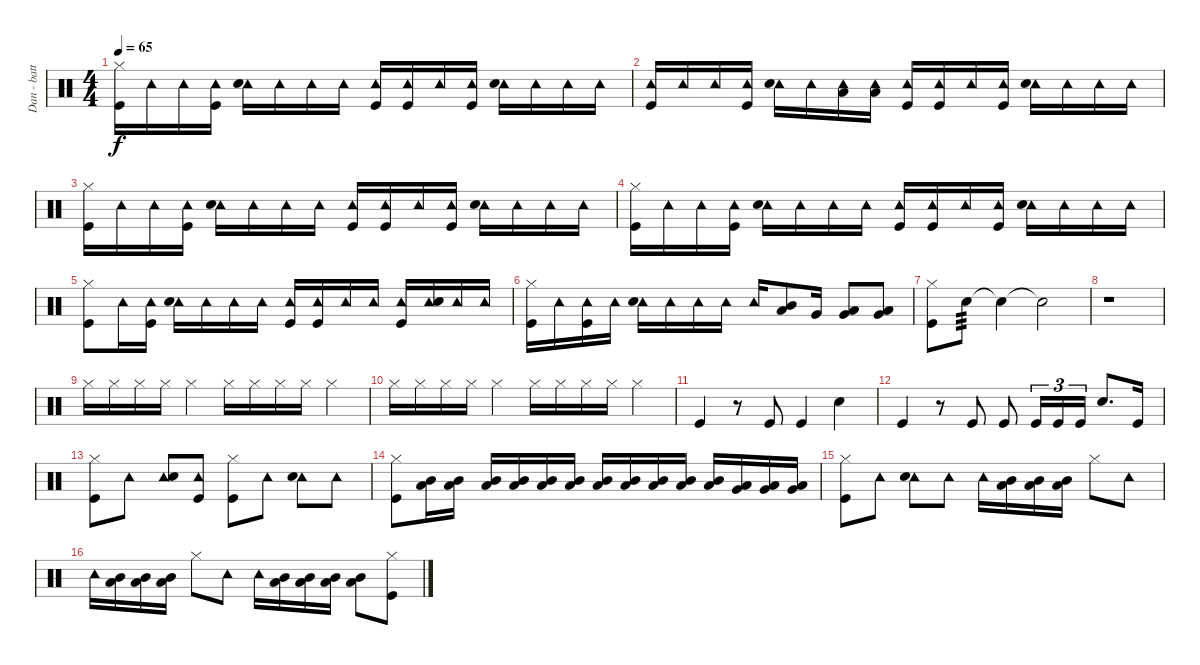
\track ("Dan - batterie" "Dan - batt") {instrument percussion}
\staff {score}
\articulation defaults
\ts (4 4)
\tempo 65
\clef neutral
\ks c
("Hi-Hat (closed)" "Kick (hit)").16{dy f} "Tambourine (hit)".16 "Tambourine (hit)".16 ("Tambourine (hit)" "Kick (hit)").16 ("Tambourine (hit)" "Snare (hit) 2").16 "Tambourine (hit)".16 "Tambourine (hit)".16 "Tambourine (hit)".16 ("Tambourine (hit)" "Kick (hit)").16 ("Tambourine (hit)" "Kick (hit)").16 "Tambourine (hit)".16 ("Tambourine (hit)" "Kick (hit)").16 ("Tambourine (hit)" "Snare (hit) 2").16 "Tambourine (hit)".16 "Tambourine (hit)".16 "Tambourine (hit)".16 |
("Tambourine (hit)" "Kick (hit)").16 "Tambourine (hit)".16 "Tambourine (hit)".16 ("Tambourine (hit)" "Kick (hit)").16 ("Tambourine (hit)" "Snare (hit) 2").16 "Tambourine (hit)".16 ("Tambourine (hit)" "Low Tom (hit)").16 ("Tambourine (hit)" "Low Tom (hit)").16 ("Tambourine (hit)" "Kick (hit)").16 ("Tambourine (hit)" "Kick (hit)").16 "Tambourine (hit)".16 ("Tambourine (hit)" "Kick (hit)").16 ("Tambourine (hit)" "Snare (hit) 2").16 "Tambourine (hit)".16 "Tambourine (hit)".16 "Tambourine (hit)".16 |
("Hi-Hat (closed)" "Kick (hit)").16 "Tambourine (hit)".16 "Tambourine (hit)".16 ("Tambourine (hit)" "Kick (hit)").16 ("Tambourine (hit)" "Snare (hit) 2").16 "Tambourine (hit)".16 "Tambourine (hit)".16 "Tambourine (hit)".16 ("Tambourine (hit)" "Kick (hit)").16 ("Tambourine (hit)" "Kick (hit)").16 "Tambourine (hit)".16 ("Tambourine (hit)" "Kick (hit)").16 ("Tambourine (hit)" "Snare (hit) 2").16 "Tambourine (hit)".16 "Tambourine (hit)".16 "Tambourine (hit)".16 |
("Hi-Hat (closed)" "Kick (hit)").16 "Tambourine (hit)".16 "Tambourine (hit)".16 ("Tambourine (hit)" "Kick (hit)").16 ("Tambourine (hit)" "Snare (hit) 2").16 "Tambourine (hit)".16 "Tambourine (hit)".16 "Tambourine (hit)".16 ("Tambourine (hit)" "Kick (hit)").16 ("Tambourine (hit)" "Kick (hit)").16 "Tambourine (hit)".16 ("Tambourine (hit)" "Kick (hit)").16 ("Tambourine (hit)" "Snare (hit) 2").16 "Tambourine (hit)".16 "Tambourine (hit)".16 "Tambourine (hit)".16 |
("Hi-Hat (closed)" "Kick (hit)").8 "Tambourine (hit)".16 ("Tambourine (hit)" "Kick (hit)").16 ("Tambourine (hit)" "Snare (hit) 2").16 "Tambourine (hit)".16 "Tambourine (hit)".16 "Tambourine (hit)".16 ("Tambourine (hit)" "Kick (hit)").16 ("Tambourine (hit)" "Kick (hit)").16 "Tambourine (hit)".16 "Tambourine (hit)".16 ("Tambourine (hit)" "Kick (hit)").16 ("Tambourine (hit)" "Snare (hit) 2").16 "Tambourine (hit)".16 "Tambourine (hit)".16 |
("Hi-Hat (closed)" "Kick (hit)").16 "Tambourine (hit)".16 ("Tambourine (hit)" "Kick (hit)").16 "Tambourine (hit)".16 ("Tambourine (hit)" "Snare (hit) 2").16 "Tambourine (hit)".16 "Tambourine (hit)".16 "Tambourine (hit)".16 "Tambourine (hit)".16 ("Mid Tom (hit)" "Low Tom (hit)").8 "Very Low Tom (hit)".16 ("Low Tom (hit)" "Very Low Tom (hit)").8 ("Low Tom (hit)" "Very Low Tom (hit)").8 |
("Hi-Hat (closed)" "Kick (hit)").8 "Snare (hit) 2".8{tp 3} "Snare (hit) 2"{t}.4 "Snare (hit)"{t}.2 |
r.1 |
"Hi-Hat (closed)".16 "Hi-Hat (closed)".16 "Hi-Hat (closed)".16 "Hi-Hat (closed)".16 "Hi-Hat (closed)".4 "Hi-Hat (closed)".16 "Hi-Hat (closed)".16 "Hi-Hat (closed)".16 "Hi-Hat (closed)".16 "Hi-Hat (closed)".4 |
"Hi-Hat (closed)".16 "Hi-Hat (closed)".16 "Hi-Hat (closed)".16 "Hi-Hat (closed)".16 "Hi-Hat (closed)".4 "Hi-Hat (closed)".16 "Hi-Hat (closed)".16 "Hi-Hat (closed)".16 "Hi-Hat (closed)".16 "Hi-Hat (closed)".4 |
"Kick (hit)".4 r.8 "Kick (hit)".8 "Kick (hit)".4 "Snare (hit) 2".4 |
"Kick (hit)".4 r.8 "Kick (hit)".8 "Kick (hit)".8 "Kick (hit)".16{tu (3 2)} "Kick (hit)".16{tu (3 2)} "Kick (hit)".16{tu (3 2)} "Snare (hit) 2".8{d} "Kick (hit)".16 |
("Hi-Hat (closed)" "Kick (hit)").8 "Tambourine (hit)".8 ("Tambourine (hit)" "Snare (hit) 2").8 ("Tambourine (hit)" "Kick (hit)").8 ("Hi-Hat (closed)" "Kick (hit)").8 "Tambourine (hit)".8 ("Tambourine (hit)" "Snare (hit) 2").8 "Tambourine (hit)".8 |
("Hi-Hat (closed)" "Kick (hit)").8 ("Mid Tom (hit)" "Low Tom (hit)").16 ("Mid Tom (hit)" "Low Tom (hit)").16 ("Mid Tom (hit)" "Low Tom (hit)").16 ("Mid Tom (hit)" "Low Tom (hit)").16 ("Mid Tom (hit)" "Low Tom (hit)").16 ("Mid Tom (hit)" "Low Tom (hit)").16 ("Mid Tom (hit)" "Low Tom (hit)").16 ("Mid Tom (hit)" "Low Tom (hit)").16 ("Mid Tom (hit)" "Low Tom (hit)").16 ("Mid Tom (hit)" "Low Tom (hit)").16 ("Mid Tom (hit)" "Low Tom (hit)").16 ("Low Tom (hit)" "Very Low Tom (hit)").16 ("Low Tom (hit)" "Very Low Tom (hit)").16 ("Low Tom (hit)" "Very Low Tom (hit)").16 |
("Hi-Hat (closed)" "Kick (hit)").8 "Tambourine (hit)".8 ("Tambourine (hit)" "Snare (hit) 2").8 "Tambourine (hit)".8 "Tambourine (hit)".16 ("Mid Tom (hit)" "Low Tom (hit)").16 ("Mid Tom (hit)" "Low Tom (hit)").16 ("Mid Tom (hit)" "Low Tom (hit)").16 "Hi-Hat (closed)".8 "Tambourine (hit)".8 |
"Tambourine (hit)".16 ("Mid Tom (hit)" "Low Tom (hit)").16 ("Mid Tom (hit)" "Low Tom (hit)").16 ("Mid Tom (hit)" "Low Tom (hit)").16 "Hi-Hat (closed)".8 "Tambourine (hit)".8 "Tambourine (hit)".16 ("Mid Tom (hit)" "Low Tom (hit)").16 ("Mid Tom (hit)" "Low Tom (hit)").16 ("Mid Tom (hit)" "Low Tom (hit)").16 ("Mid Tom (hit)" "Low Tom (hit)").8 ("Hi-Hat (closed)" "Kick (hit)").8
